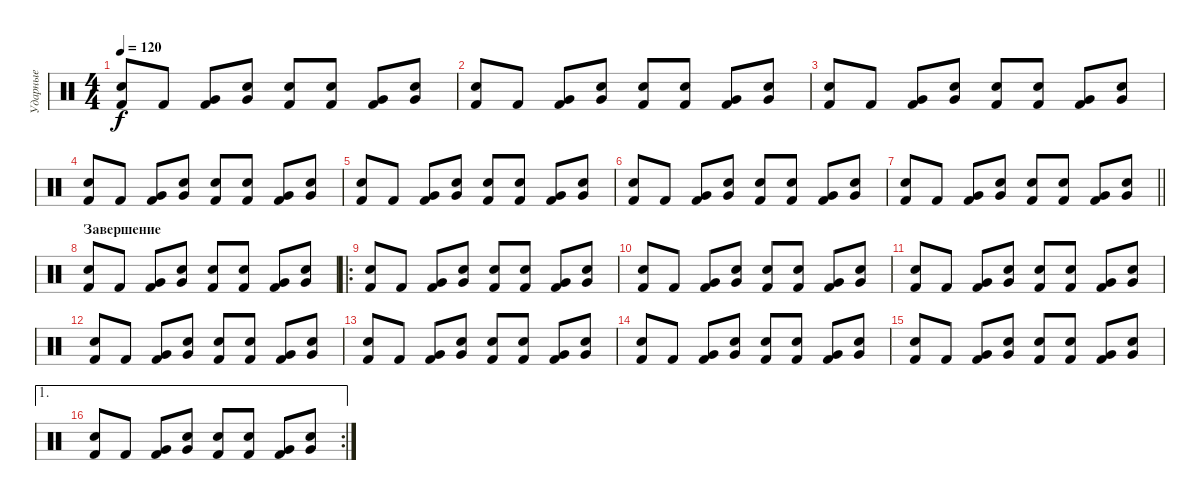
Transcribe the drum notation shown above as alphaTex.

\track ("Ударные" "Ударные") {instrument percussion}
\staff {score}
\articulation defaults
\ts (4 4)
\tempo 120
\clef neutral
\ks c
("Snare (hit) 2" "Kick (hit) 2").8{dy f} "Kick (hit) 2".8 ("Very Low Tom (hit)" "Kick (hit) 2").8 ("Very Low Tom (hit)" "Snare (hit) 2").8 ("Snare (hit) 2" "Kick (hit) 2").8 ("Snare (hit) 2" "Kick (hit) 2").8 ("Very Low Tom (hit)" "Kick (hit) 2").8 ("Very Low Tom (hit)" "Snare (hit) 2").8 |
("Snare (hit) 2" "Kick (hit) 2").8 "Kick (hit) 2".8 ("Very Low Tom (hit)" "Kick (hit) 2").8 ("Very Low Tom (hit)" "Snare (hit) 2").8 ("Snare (hit) 2" "Kick (hit) 2").8 ("Snare (hit) 2" "Kick (hit) 2").8 ("Very Low Tom (hit)" "Kick (hit) 2").8 ("Very Low Tom (hit)" "Snare (hit) 2").8 |
("Snare (hit) 2" "Kick (hit) 2").8 "Kick (hit) 2".8 ("Very Low Tom (hit)" "Kick (hit) 2").8 ("Very Low Tom (hit)" "Snare (hit) 2").8 ("Snare (hit) 2" "Kick (hit) 2").8 ("Snare (hit) 2" "Kick (hit) 2").8 ("Very Low Tom (hit)" "Kick (hit) 2").8 ("Very Low Tom (hit)" "Snare (hit) 2").8 |
("Snare (hit) 2" "Kick (hit) 2").8 "Kick (hit) 2".8 ("Very Low Tom (hit)" "Kick (hit) 2").8 ("Very Low Tom (hit)" "Snare (hit) 2").8 ("Snare (hit) 2" "Kick (hit) 2").8 ("Snare (hit) 2" "Kick (hit) 2").8 ("Very Low Tom (hit)" "Kick (hit) 2").8 ("Very Low Tom (hit)" "Snare (hit) 2").8 |
("Snare (hit) 2" "Kick (hit) 2").8 "Kick (hit) 2".8 ("Very Low Tom (hit)" "Kick (hit) 2").8 ("Very Low Tom (hit)" "Snare (hit) 2").8 ("Snare (hit) 2" "Kick (hit) 2").8 ("Snare (hit) 2" "Kick (hit) 2").8 ("Very Low Tom (hit)" "Kick (hit) 2").8 ("Very Low Tom (hit)" "Snare (hit) 2").8 |
("Snare (hit) 2" "Kick (hit) 2").8 "Kick (hit) 2".8 ("Very Low Tom (hit)" "Kick (hit) 2").8 ("Very Low Tom (hit)" "Snare (hit) 2").8 ("Snare (hit) 2" "Kick (hit) 2").8 ("Snare (hit) 2" "Kick (hit) 2").8 ("Very Low Tom (hit)" "Kick (hit) 2").8 ("Very Low Tom (hit)" "Snare (hit) 2").8 |
\barLineRight lightlight
("Snare (hit) 2" "Kick (hit) 2").8 "Kick (hit) 2".8 ("Very Low Tom (hit)" "Kick (hit) 2").8 ("Very Low Tom (hit)" "Snare (hit) 2").8 ("Snare (hit) 2" "Kick (hit) 2").8 ("Snare (hit) 2" "Kick (hit) 2").8 ("Very Low Tom (hit)" "Kick (hit) 2").8 ("Very Low Tom (hit)" "Snare (hit) 2").8 |
\section ("" "Завершение")
("Snare (hit) 2" "Kick (hit) 2").8 "Kick (hit) 2".8 ("Very Low Tom (hit)" "Kick (hit) 2").8 ("Very Low Tom (hit)" "Snare (hit) 2").8 ("Snare (hit) 2" "Kick (hit) 2").8 ("Snare (hit) 2" "Kick (hit) 2").8 ("Very Low Tom (hit)" "Kick (hit) 2").8 ("Very Low Tom (hit)" "Snare (hit) 2").8 |
\ro
("Snare (hit) 2" "Kick (hit) 2").8 "Kick (hit) 2".8 ("Very Low Tom (hit)" "Kick (hit) 2").8 ("Very Low Tom (hit)" "Snare (hit) 2").8 ("Snare (hit) 2" "Kick (hit) 2").8 ("Snare (hit) 2" "Kick (hit) 2").8 ("Very Low Tom (hit)" "Kick (hit) 2").8 ("Very Low Tom (hit)" "Snare (hit) 2").8 |
("Snare (hit) 2" "Kick (hit) 2").8 "Kick (hit) 2".8 ("Very Low Tom (hit)" "Kick (hit) 2").8 ("Very Low Tom (hit)" "Snare (hit) 2").8 ("Snare (hit) 2" "Kick (hit) 2").8 ("Snare (hit) 2" "Kick (hit) 2").8 ("Very Low Tom (hit)" "Kick (hit) 2").8 ("Very Low Tom (hit)" "Snare (hit) 2").8 |
("Snare (hit) 2" "Kick (hit) 2").8 "Kick (hit) 2".8 ("Very Low Tom (hit)" "Kick (hit) 2").8 ("Very Low Tom (hit)" "Snare (hit) 2").8 ("Snare (hit) 2" "Kick (hit) 2").8 ("Snare (hit) 2" "Kick (hit) 2").8 ("Very Low Tom (hit)" "Kick (hit) 2").8 ("Very Low Tom (hit)" "Snare (hit) 2").8 |
("Snare (hit) 2" "Kick (hit) 2").8 "Kick (hit) 2".8 ("Very Low Tom (hit)" "Kick (hit) 2").8 ("Very Low Tom (hit)" "Snare (hit) 2").8 ("Snare (hit) 2" "Kick (hit) 2").8 ("Snare (hit) 2" "Kick (hit) 2").8 ("Very Low Tom (hit)" "Kick (hit) 2").8 ("Very Low Tom (hit)" "Snare (hit) 2").8 |
("Snare (hit) 2" "Kick (hit) 2").8 "Kick (hit) 2".8 ("Very Low Tom (hit)" "Kick (hit) 2").8 ("Very Low Tom (hit)" "Snare (hit) 2").8 ("Snare (hit) 2" "Kick (hit) 2").8 ("Snare (hit) 2" "Kick (hit) 2").8 ("Very Low Tom (hit)" "Kick (hit) 2").8 ("Very Low Tom (hit)" "Snare (hit) 2").8 |
("Snare (hit) 2" "Kick (hit) 2").8 "Kick (hit) 2".8 ("Very Low Tom (hit)" "Kick (hit) 2").8 ("Very Low Tom (hit)" "Snare (hit) 2").8 ("Snare (hit) 2" "Kick (hit) 2").8 ("Snare (hit) 2" "Kick (hit) 2").8 ("Very Low Tom (hit)" "Kick (hit) 2").8 ("Very Low Tom (hit)" "Snare (hit) 2").8 |
("Snare (hit) 2" "Kick (hit) 2").8 "Kick (hit) 2".8 ("Very Low Tom (hit)" "Kick (hit) 2").8 ("Very Low Tom (hit)" "Snare (hit) 2").8 ("Snare (hit) 2" "Kick (hit) 2").8 ("Snare (hit) 2" "Kick (hit) 2").8 ("Very Low Tom (hit)" "Kick (hit) 2").8 ("Very Low Tom (hit)" "Snare (hit) 2").8 |
\ae 1
\rc 2
("Snare (hit) 2" "Kick (hit) 2").8 "Kick (hit) 2".8 ("Very Low Tom (hit)" "Kick (hit) 2").8 ("Very Low Tom (hit)" "Snare (hit) 2").8 ("Snare (hit) 2" "Kick (hit) 2").8 ("Snare (hit) 2" "Kick (hit) 2").8 ("Very Low Tom (hit)" "Kick (hit) 2").8 ("Very Low Tom (hit)" "Snare (hit) 2").8
